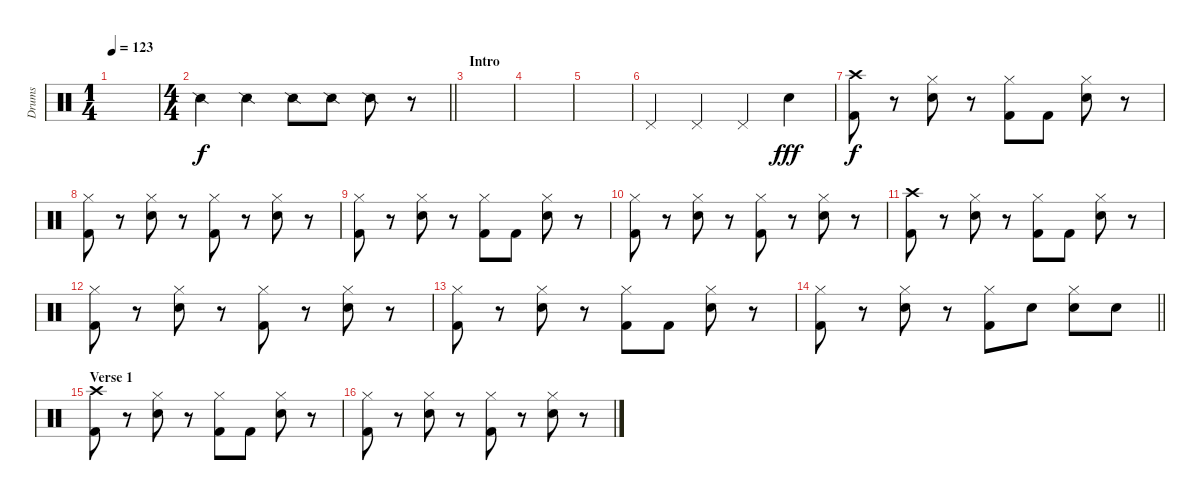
\track ("Drums" "Drums") {instrument percussion}
\staff {score}
\articulation defaults
\ts (1 4)
\tempo 123
\clef neutral
\ks c
|
\ts (4 4)
\barLineRight lightlight "Snare (side stick) 2".4 "Snare (side stick) 2".4 "Snare (side stick) 2".8 "Snare (side stick) 2".8 "Snare (side stick) 2".8
r.8 |
\section ("" "Intro")
|
|
|
"Pedal Hi-Hat (hit)".4 "Pedal Hi-Hat (hit)".4 "Pedal Hi-Hat (hit)".4 "Snare (hit) 2".4{dy fff} |
("Crash high (hit)" "Kick (hit) 2").8{dy f} r.8 ("Hi-Hat (closed)" "Snare (hit) 2").8 r.8 ("Hi-Hat (closed)" "Kick (hit) 2").8 "Kick (hit) 2".8 ("Hi-Hat (closed)" "Snare (hit) 2").8 r.8 |
("Hi-Hat (closed)" "Kick (hit) 2").8 r.8 ("Hi-Hat (closed)" "Snare (hit) 2").8 r.8 ("Hi-Hat (closed)" "Kick (hit) 2").8 r.8 ("Hi-Hat (closed)" "Snare (hit) 2").8 r.8 |
("Hi-Hat (closed)" "Kick (hit) 2").8 r.8 ("Hi-Hat (closed)" "Snare (hit) 2").8 r.8 ("Hi-Hat (closed)" "Kick (hit) 2").8 "Kick (hit) 2".8 ("Hi-Hat (closed)" "Snare (hit) 2").8 r.8 |
("Hi-Hat (closed)" "Kick (hit) 2").8 r.8 ("Hi-Hat (closed)" "Snare (hit) 2").8 r.8 ("Hi-Hat (closed)" "Kick (hit) 2").8 r.8 ("Hi-Hat (closed)" "Snare (hit) 2").8 r.8 |
("Crash high (hit)" "Kick (hit) 2").8 r.8 ("Hi-Hat (closed)" "Snare (hit) 2").8 r.8 ("Hi-Hat (closed)" "Kick (hit) 2").8 "Kick (hit) 2".8 ("Hi-Hat (closed)" "Snare (hit) 2").8 r.8 |
("Hi-Hat (closed)" "Kick (hit) 2").8 r.8 ("Hi-Hat (closed)" "Snare (hit) 2").8 r.8 ("Hi-Hat (closed)" "Kick (hit) 2").8 r.8 ("Hi-Hat (closed)" "Snare (hit) 2").8 r.8 |
("Hi-Hat (closed)" "Kick (hit) 2").8 r.8 ("Hi-Hat (closed)" "Snare (hit) 2").8 r.8 ("Hi-Hat (closed)" "Kick (hit) 2").8 "Kick (hit) 2".8 ("Hi-Hat (closed)" "Snare (hit) 2").8 r.8 |
\barLineRight lightlight
("Hi-Hat (closed)" "Kick (hit) 2").8 r.8 ("Hi-Hat (closed)" "Snare (hit) 2").8 r.8 ("Hi-Hat (closed)" "Kick (hit) 2").8 "Snare (hit) 2".8 ("Hi-Hat (closed)" "Snare (hit) 2").8 "Snare (hit) 2".8 |
\section ("" "Verse 1")
("Crash high (hit)" "Kick (hit) 2").8 r.8 ("Hi-Hat (closed)" "Snare (hit) 2").8 r.8 ("Hi-Hat (closed)" "Kick (hit) 2").8 "Kick (hit) 2".8 ("Hi-Hat (closed)" "Snare (hit) 2").8 r.8 |
("Hi-Hat (closed)" "Kick (hit) 2").8 r.8 ("Hi-Hat (closed)" "Snare (hit) 2").8 r.8 ("Hi-Hat (closed)" "Kick (hit) 2").8 r.8 ("Hi-Hat (closed)" "Snare (hit) 2").8 r.8
